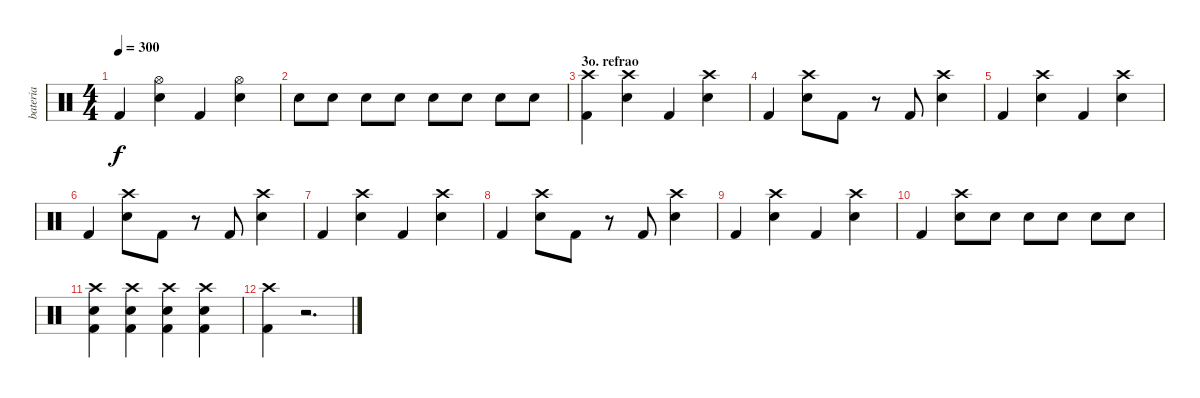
\track ("bateria" "bateria") {instrument percussion}
\staff {score}
\articulation defaults
\ts (4 4)
\tempo 300
\clef neutral
\ks c "Kick (hit) 2".4{dy f}
("Electric Snare (hit)" "Hi-Hat (open)").4 "Kick (hit) 2".4 ("Electric Snare (hit)" "Hi-Hat (open)").4 |
"Electric Snare (hit)".8 "Electric Snare (hit)".8 "Electric Snare (hit)".8 "Electric Snare (hit)".8 "Electric Snare (hit)".8 "Electric Snare (hit)".8 "Electric Snare (hit)".8 "Electric Snare (hit)".8 |
\section ("" "3o. refrao")
("Crash high (hit)" "Kick (hit) 2").4 ("Crash high (hit)" "Electric Snare (hit)").4 "Kick (hit) 2".4 ("Crash high (hit)" "Electric Snare (hit)").4 |
"Kick (hit) 2".4 ("Crash high (hit)" "Electric Snare (hit)").8 "Kick (hit) 2".8 r.8 "Kick (hit) 2".8 ("Crash high (hit)" "Electric Snare (hit)").4 |
"Kick (hit) 2".4 ("Crash high (hit)" "Electric Snare (hit)").4 "Kick (hit) 2".4 ("Crash high (hit)" "Electric Snare (hit)").4 |
"Kick (hit) 2".4 ("Crash high (hit)" "Electric Snare (hit)").8 "Kick (hit) 2".8 r.8 "Kick (hit) 2".8 ("Crash high (hit)" "Electric Snare (hit)").4 |
"Kick (hit) 2".4 ("Crash high (hit)" "Electric Snare (hit)").4 "Kick (hit) 2".4 ("Crash high (hit)" "Electric Snare (hit)").4 |
"Kick (hit) 2".4 ("Crash high (hit)" "Electric Snare (hit)").8 "Kick (hit) 2".8 r.8 "Kick (hit) 2".8 ("Crash high (hit)" "Electric Snare (hit)").4 |
"Kick (hit) 2".4 ("Crash high (hit)" "Electric Snare (hit)").4 "Kick (hit) 2".4 ("Crash high (hit)" "Electric Snare (hit)").4 |
"Kick (hit) 2".4 ("Crash high (hit)" "Electric Snare (hit)").8 "Electric Snare (hit)".8 "Electric Snare (hit)".8 "Electric Snare (hit)".8 "Electric Snare (hit)".8 "Electric Snare (hit)".8 |
("Crash high (hit)" "Electric Snare (hit)" "Kick (hit) 2").4 ("Crash high (hit)" "Electric Snare (hit)" "Kick (hit) 2").4 ("Crash high (hit)" "Electric Snare (hit)" "Kick (hit) 2").4 ("Crash high (hit)" "Electric Snare (hit)" "Kick (hit) 2").4 |
("Crash high (hit)" "Kick (hit) 2").4 r.2{d}
